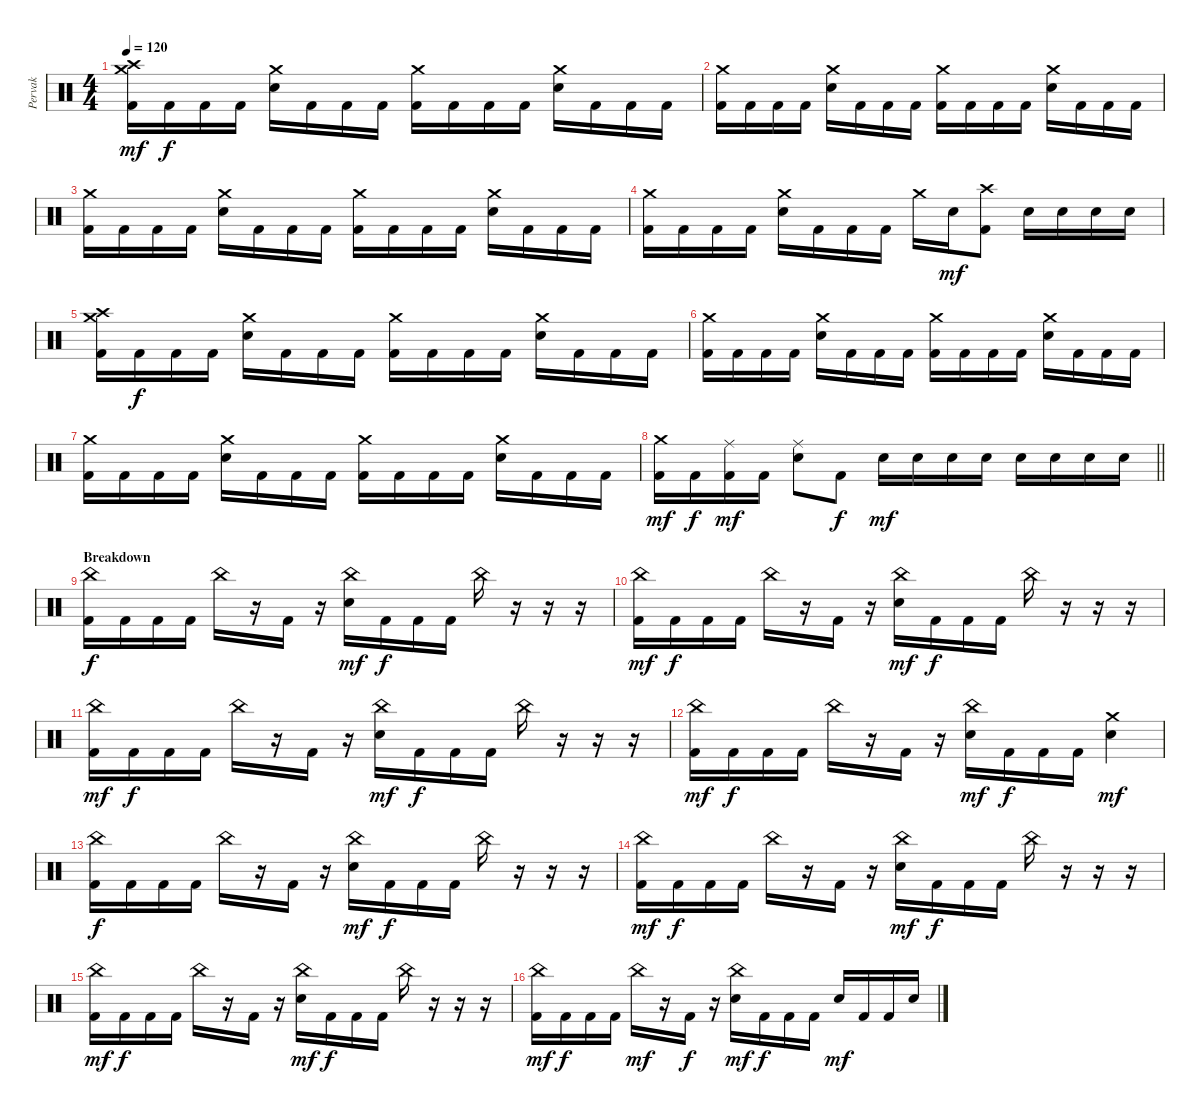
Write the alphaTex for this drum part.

\track ("Pervak" "Pervak") {instrument percussion}
\staff {score}
\articulation defaults
\ts (4 4)
\section ("" "")
\tempo 120
\clef neutral
\ks c
("Crash high (hit)" "Crash medium (hit)" "Kick (hit) 2").16{dy mf} "Kick (hit) 2".16{dy f} "Kick (hit) 2".16 "Kick (hit) 2".16 ("Crash medium (hit)" "Electric Snare (hit)").16 "Kick (hit) 2".16 "Kick (hit) 2".16 "Kick (hit) 2".16 ("Crash medium (hit)" "Kick (hit) 2").16 "Kick (hit) 2".16 "Kick (hit) 2".16 "Kick (hit) 2".16 ("Crash medium (hit)" "Electric Snare (hit)").16 "Kick (hit) 2".16 "Kick (hit) 2".16 "Kick (hit) 2".16 |
("Crash medium (hit)" "Kick (hit) 2").16 "Kick (hit) 2".16 "Kick (hit) 2".16 "Kick (hit) 2".16 ("Crash medium (hit)" "Electric Snare (hit)").16 "Kick (hit) 2".16 "Kick (hit) 2".16 "Kick (hit) 2".16 ("Crash medium (hit)" "Kick (hit) 2").16 "Kick (hit) 2".16 "Kick (hit) 2".16 "Kick (hit) 2".16 ("Crash medium (hit)" "Electric Snare (hit)").16 "Kick (hit) 2".16 "Kick (hit) 2".16 "Kick (hit) 2".16 |
("Crash medium (hit)" "Kick (hit) 2").16 "Kick (hit) 2".16 "Kick (hit) 2".16 "Kick (hit) 2".16 ("Crash medium (hit)" "Electric Snare (hit)").16 "Kick (hit) 2".16 "Kick (hit) 2".16 "Kick (hit) 2".16 ("Crash medium (hit)" "Kick (hit) 2").16 "Kick (hit) 2".16 "Kick (hit) 2".16 "Kick (hit) 2".16 ("Crash medium (hit)" "Electric Snare (hit)").16 "Kick (hit) 2".16 "Kick (hit) 2".16 "Kick (hit) 2".16 |
("Crash medium (hit)" "Kick (hit) 2").16 "Kick (hit) 2".16 "Kick (hit) 2".16 "Kick (hit) 2".16 ("Crash medium (hit)" "Electric Snare (hit)").16 "Kick (hit) 2".16 "Kick (hit) 2".16 "Kick (hit) 2".16 "Crash medium (hit)".16 "Electric Snare (hit)".16{dy mf} ("Crash high (hit)" "Kick (hit) 2").8 "Electric Snare (hit)".16 "Electric Snare (hit)".16 "Electric Snare (hit)".16 "Electric Snare (hit)".16 |
("Crash high (hit)" "Crash medium (hit)" "Kick (hit) 2").16 "Kick (hit) 2".16{dy f} "Kick (hit) 2".16 "Kick (hit) 2".16 ("Crash medium (hit)" "Electric Snare (hit)").16 "Kick (hit) 2".16 "Kick (hit) 2".16 "Kick (hit) 2".16 ("Crash medium (hit)" "Kick (hit) 2").16 "Kick (hit) 2".16 "Kick (hit) 2".16 "Kick (hit) 2".16 ("Crash medium (hit)" "Electric Snare (hit)").16 "Kick (hit) 2".16 "Kick (hit) 2".16 "Kick (hit) 2".16 |
("Crash medium (hit)" "Kick (hit) 2").16 "Kick (hit) 2".16 "Kick (hit) 2".16 "Kick (hit) 2".16 ("Crash medium (hit)" "Electric Snare (hit)").16 "Kick (hit) 2".16 "Kick (hit) 2".16 "Kick (hit) 2".16 ("Crash medium (hit)" "Kick (hit) 2").16 "Kick (hit) 2".16 "Kick (hit) 2".16 "Kick (hit) 2".16 ("Crash medium (hit)" "Electric Snare (hit)").16 "Kick (hit) 2".16 "Kick (hit) 2".16 "Kick (hit) 2".16 |
("Crash medium (hit)" "Kick (hit) 2").16 "Kick (hit) 2".16 "Kick (hit) 2".16 "Kick (hit) 2".16 ("Crash medium (hit)" "Electric Snare (hit)").16 "Kick (hit) 2".16 "Kick (hit) 2".16 "Kick (hit) 2".16 ("Crash medium (hit)" "Kick (hit) 2").16 "Kick (hit) 2".16 "Kick (hit) 2".16 "Kick (hit) 2".16 ("Crash medium (hit)" "Electric Snare (hit)").16 "Kick (hit) 2".16 "Kick (hit) 2".16 "Kick (hit) 2".16 |
\barLineRight lightlight
("Crash medium (hit)" "Kick (hit) 2").16{dy mf} "Kick (hit) 2".16{dy f} ("Ride (middle)" "Kick (hit) 2").16{dy mf} "Kick (hit) 2".16 ("Ride (middle)" "Electric Snare (hit)").8 "Kick (hit) 2".8{dy f} "Electric Snare (hit)".16{dy mf} "Electric Snare (hit)".16 "Electric Snare (hit)".16 "Electric Snare (hit)".16 "Electric Snare (hit)".16 "Electric Snare (hit)".16 "Electric Snare (hit)".16 "Electric Snare (hit)".16 |
\section ("" "Breakdown")
("China (hit)" "Kick (hit) 2").16{dy f} "Kick (hit) 2".16 "Kick (hit) 2".16 "Kick (hit) 2".16 "China (hit)".16 r.16 "Kick (hit) 2".16 r.16 ("China (hit)" "Electric Snare (hit)").16{dy mf} "Kick (hit) 2".16{dy f} "Kick (hit) 2".16 "Kick (hit) 2".16 "China (hit)".16 r.16 r.16 r.16 |
("China (hit)" "Kick (hit) 2").16{dy mf} "Kick (hit) 2".16{dy f} "Kick (hit) 2".16 "Kick (hit) 2".16 "China (hit)".16 r.16 "Kick (hit) 2".16 r.16 ("China (hit)" "Electric Snare (hit)").16{dy mf} "Kick (hit) 2".16{dy f} "Kick (hit) 2".16 "Kick (hit) 2".16 "China (hit)".16 r.16 r.16 r.16 |
("China (hit)" "Kick (hit) 2").16{dy mf} "Kick (hit) 2".16{dy f} "Kick (hit) 2".16 "Kick (hit) 2".16 "China (hit)".16 r.16 "Kick (hit) 2".16 r.16 ("China (hit)" "Electric Snare (hit)").16{dy mf} "Kick (hit) 2".16{dy f} "Kick (hit) 2".16 "Kick (hit) 2".16 "China (hit)".16 r.16 r.16 r.16 |
("China (hit)" "Kick (hit) 2").16{dy mf} "Kick (hit) 2".16{dy f} "Kick (hit) 2".16 "Kick (hit) 2".16 "China (hit)".16 r.16 "Kick (hit) 2".16 r.16 ("China (hit)" "Electric Snare (hit)").16{dy mf} "Kick (hit) 2".16{dy f} "Kick (hit) 2".16 "Kick (hit) 2".16 ("Crash medium (hit)" "Electric Snare (hit)").4{dy mf} |
("China (hit)" "Kick (hit) 2").16{dy f} "Kick (hit) 2".16 "Kick (hit) 2".16 "Kick (hit) 2".16 "China (hit)".16 r.16 "Kick (hit) 2".16 r.16 ("China (hit)" "Electric Snare (hit)").16{dy mf} "Kick (hit) 2".16{dy f} "Kick (hit) 2".16 "Kick (hit) 2".16 "China (hit)".16 r.16 r.16 r.16 |
("China (hit)" "Kick (hit) 2").16{dy mf} "Kick (hit) 2".16{dy f} "Kick (hit) 2".16 "Kick (hit) 2".16 "China (hit)".16 r.16 "Kick (hit) 2".16 r.16 ("China (hit)" "Electric Snare (hit)").16{dy mf} "Kick (hit) 2".16{dy f} "Kick (hit) 2".16 "Kick (hit) 2".16 "China (hit)".16 r.16 r.16 r.16 |
("China (hit)" "Kick (hit) 2").16{dy mf} "Kick (hit) 2".16{dy f} "Kick (hit) 2".16 "Kick (hit) 2".16 "China (hit)".16 r.16 "Kick (hit) 2".16 r.16 ("China (hit)" "Electric Snare (hit)").16{dy mf} "Kick (hit) 2".16{dy f} "Kick (hit) 2".16 "Kick (hit) 2".16 "China (hit)".16 r.16 r.16 r.16 |
("China (hit)" "Kick (hit) 2").16{dy mf} "Kick (hit) 2".16{dy f} "Kick (hit) 2".16 "Kick (hit) 2".16 "China (hit)".16{dy mf} r.16 "Kick (hit) 2".16{dy f} r.16 ("China (hit)" "Electric Snare (hit)").16{dy mf} "Kick (hit) 2".16{dy f} "Kick (hit) 2".16 "Kick (hit) 2".16 "Electric Snare (hit)".16{dy mf} "Kick (hit) 2".16 "Kick (hit) 2".16 "Electric Snare (hit)".16
